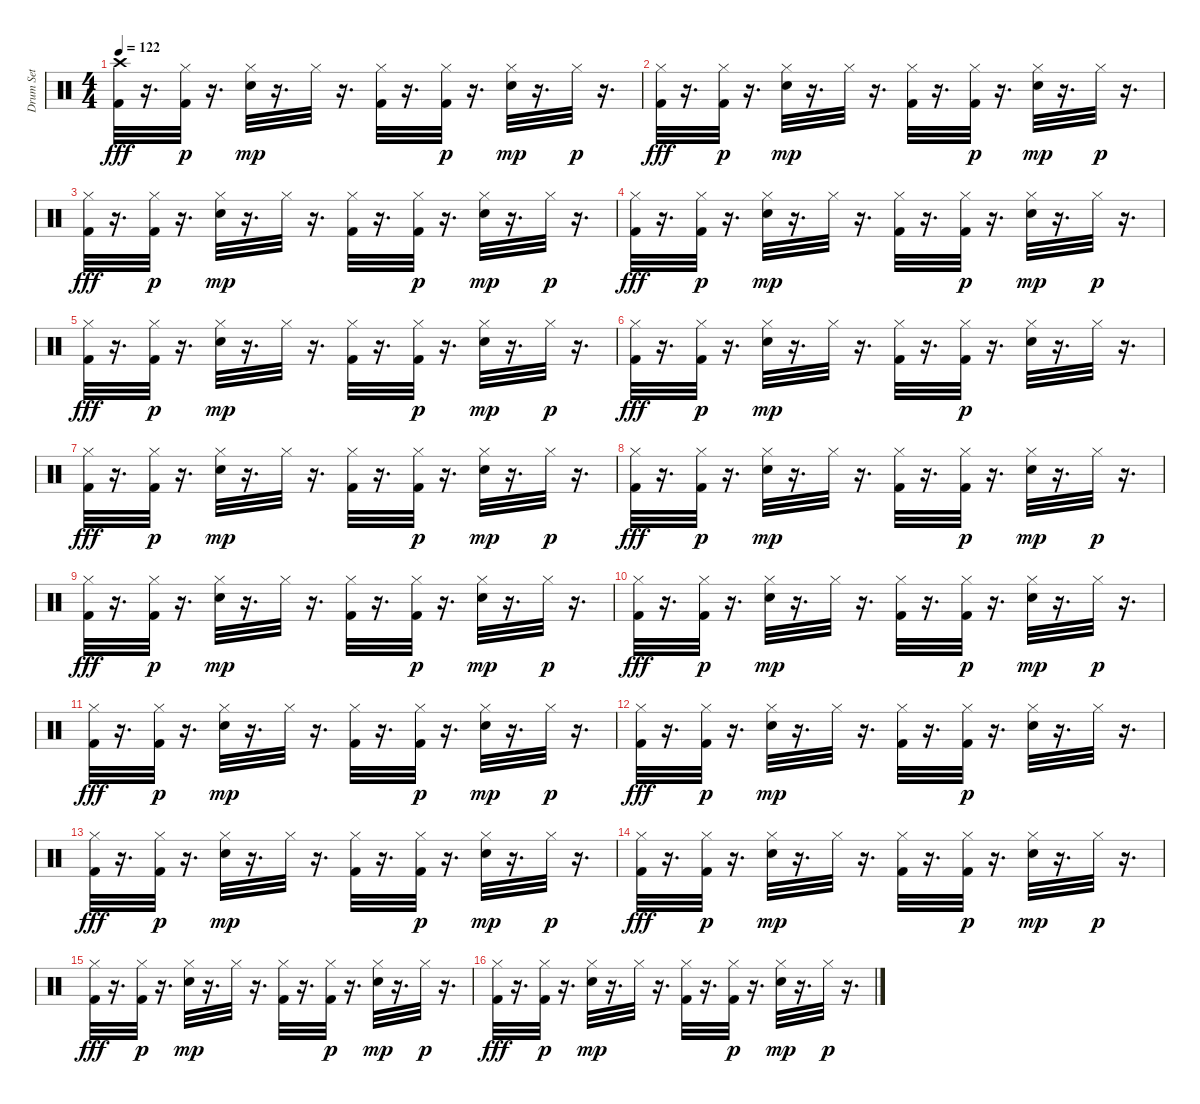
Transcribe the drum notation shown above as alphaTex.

\track ("Drum Set" "Drum Set") {instrument percussion}
\staff {score}
\articulation defaults
\ts (4 4)
\tempo 122
\clef neutral
\ks c
("Crash high (hit)" "Kick (hit) 2").32{dy fff} r.16{d} ("Kick (hit) 2" "Hi-Hat (closed)").32{dy p} r.16{d} ("Electric Snare (hit)" "Hi-Hat (closed)").32{dy mp} r.16{d} "Hi-Hat (closed)".32 r.16{d} ("Kick (hit) 2" "Hi-Hat (closed)").32 r.16{d} ("Kick (hit) 2" "Hi-Hat (closed)").32{dy p} r.16{d} ("Electric Snare (hit)" "Hi-Hat (closed)").32{dy mp} r.16{d} "Hi-Hat (closed)".32{dy p} r.16{d} |
("Hi-Hat (closed)" "Kick (hit) 2").32{dy fff} r.16{d} ("Kick (hit) 2" "Hi-Hat (closed)").32{dy p} r.16{d} ("Electric Snare (hit)" "Hi-Hat (closed)").32{dy mp} r.16{d} "Hi-Hat (closed)".32 r.16{d} ("Kick (hit) 2" "Hi-Hat (closed)").32 r.16{d} ("Kick (hit) 2" "Hi-Hat (closed)").32{dy p} r.16{d} ("Electric Snare (hit)" "Hi-Hat (closed)").32{dy mp} r.16{d} "Hi-Hat (closed)".32{dy p} r.16{d} |
("Hi-Hat (closed)" "Kick (hit) 2").32{dy fff} r.16{d} ("Kick (hit) 2" "Hi-Hat (closed)").32{dy p} r.16{d} ("Electric Snare (hit)" "Hi-Hat (closed)").32{dy mp} r.16{d} "Hi-Hat (closed)".32 r.16{d} ("Kick (hit) 2" "Hi-Hat (closed)").32 r.16{d} ("Kick (hit) 2" "Hi-Hat (closed)").32{dy p} r.16{d} ("Electric Snare (hit)" "Hi-Hat (closed)").32{dy mp} r.16{d} "Hi-Hat (closed)".32{dy p} r.16{d} |
("Hi-Hat (closed)" "Kick (hit) 2").32{dy fff} r.16{d} ("Kick (hit) 2" "Hi-Hat (closed)").32{dy p} r.16{d} ("Electric Snare (hit)" "Hi-Hat (closed)").32{dy mp} r.16{d} "Hi-Hat (closed)".32 r.16{d} ("Kick (hit) 2" "Hi-Hat (closed)").32 r.16{d} ("Kick (hit) 2" "Hi-Hat (closed)").32{dy p} r.16{d} ("Electric Snare (hit)" "Hi-Hat (closed)").32{dy mp} r.16{d} "Hi-Hat (closed)".32{dy p} r.16{d} |
("Hi-Hat (closed)" "Kick (hit) 2").32{dy fff} r.16{d} ("Kick (hit) 2" "Hi-Hat (closed)").32{dy p} r.16{d} ("Electric Snare (hit)" "Hi-Hat (closed)").32{dy mp} r.16{d} "Hi-Hat (closed)".32 r.16{d} ("Kick (hit) 2" "Hi-Hat (closed)").32 r.16{d} ("Kick (hit) 2" "Hi-Hat (closed)").32{dy p} r.16{d} ("Electric Snare (hit)" "Hi-Hat (closed)").32{dy mp} r.16{d} "Hi-Hat (closed)".32{dy p} r.16{d} |
("Hi-Hat (closed)" "Kick (hit) 2").32{dy fff} r.16{d} ("Kick (hit) 2" "Hi-Hat (closed)").32{dy p} r.16{d} ("Electric Snare (hit)" "Hi-Hat (closed)").32{dy mp} r.16{d} "Hi-Hat (closed)".32 r.16{d} ("Kick (hit) 2" "Hi-Hat (closed)").32 r.16{d} ("Kick (hit) 2" "Hi-Hat (closed)").32{dy p} r.16{d} ("Electric Snare (hit)" "Hi-Hat (closed)").32 r.16{d} "Hi-Hat (closed)".32 r.16{d} |
("Hi-Hat (closed)" "Kick (hit) 2").32{dy fff} r.16{d} ("Kick (hit) 2" "Hi-Hat (closed)").32{dy p} r.16{d} ("Electric Snare (hit)" "Hi-Hat (closed)").32{dy mp} r.16{d} "Hi-Hat (closed)".32 r.16{d} ("Kick (hit) 2" "Hi-Hat (closed)").32 r.16{d} ("Kick (hit) 2" "Hi-Hat (closed)").32{dy p} r.16{d} ("Electric Snare (hit)" "Hi-Hat (closed)").32{dy mp} r.16{d} "Hi-Hat (closed)".32{dy p} r.16{d} |
("Hi-Hat (closed)" "Kick (hit) 2").32{dy fff} r.16{d} ("Kick (hit) 2" "Hi-Hat (closed)").32{dy p} r.16{d} ("Electric Snare (hit)" "Hi-Hat (closed)").32{dy mp} r.16{d} "Hi-Hat (closed)".32 r.16{d} ("Kick (hit) 2" "Hi-Hat (closed)").32 r.16{d} ("Kick (hit) 2" "Hi-Hat (closed)").32{dy p} r.16{d} ("Electric Snare (hit)" "Hi-Hat (closed)").32{dy mp} r.16{d} "Hi-Hat (closed)".32{dy p} r.16{d} |
("Hi-Hat (closed)" "Kick (hit) 2").32{dy fff} r.16{d} ("Kick (hit) 2" "Hi-Hat (closed)").32{dy p} r.16{d} ("Electric Snare (hit)" "Hi-Hat (closed)").32{dy mp} r.16{d} "Hi-Hat (closed)".32 r.16{d} ("Kick (hit) 2" "Hi-Hat (closed)").32 r.16{d} ("Kick (hit) 2" "Hi-Hat (closed)").32{dy p} r.16{d} ("Electric Snare (hit)" "Hi-Hat (closed)").32{dy mp} r.16{d} "Hi-Hat (closed)".32{dy p} r.16{d} |
("Hi-Hat (closed)" "Kick (hit) 2").32{dy fff} r.16{d} ("Kick (hit) 2" "Hi-Hat (closed)").32{dy p} r.16{d} ("Electric Snare (hit)" "Hi-Hat (closed)").32{dy mp} r.16{d} "Hi-Hat (closed)".32 r.16{d} ("Kick (hit) 2" "Hi-Hat (closed)").32 r.16{d} ("Kick (hit) 2" "Hi-Hat (closed)").32{dy p} r.16{d} ("Electric Snare (hit)" "Hi-Hat (closed)").32{dy mp} r.16{d} "Hi-Hat (closed)".32{dy p} r.16{d} |
("Hi-Hat (closed)" "Kick (hit) 2").32{dy fff} r.16{d} ("Kick (hit) 2" "Hi-Hat (closed)").32{dy p} r.16{d} ("Electric Snare (hit)" "Hi-Hat (closed)").32{dy mp} r.16{d} "Hi-Hat (closed)".32 r.16{d} ("Kick (hit) 2" "Hi-Hat (closed)").32 r.16{d} ("Kick (hit) 2" "Hi-Hat (closed)").32{dy p} r.16{d} ("Electric Snare (hit)" "Hi-Hat (closed)").32{dy mp} r.16{d} "Hi-Hat (closed)".32{dy p} r.16{d} |
("Hi-Hat (closed)" "Kick (hit) 2").32{dy fff} r.16{d} ("Kick (hit) 2" "Hi-Hat (closed)").32{dy p} r.16{d} ("Electric Snare (hit)" "Hi-Hat (closed)").32{dy mp} r.16{d} "Hi-Hat (closed)".32 r.16{d} ("Kick (hit) 2" "Hi-Hat (closed)").32 r.16{d} ("Kick (hit) 2" "Hi-Hat (closed)").32{dy p} r.16{d} ("Electric Snare (hit)" "Hi-Hat (closed)").32 r.16{d} "Hi-Hat (closed)".32 r.16{d} |
("Hi-Hat (closed)" "Kick (hit) 2").32{dy fff} r.16{d} ("Kick (hit) 2" "Hi-Hat (closed)").32{dy p} r.16{d} ("Electric Snare (hit)" "Hi-Hat (closed)").32{dy mp} r.16{d} "Hi-Hat (closed)".32 r.16{d} ("Kick (hit) 2" "Hi-Hat (closed)").32 r.16{d} ("Kick (hit) 2" "Hi-Hat (closed)").32{dy p} r.16{d} ("Electric Snare (hit)" "Hi-Hat (closed)").32{dy mp} r.16{d} "Hi-Hat (closed)".32{dy p} r.16{d} |
("Hi-Hat (closed)" "Kick (hit) 2").32{dy fff} r.16{d} ("Kick (hit) 2" "Hi-Hat (closed)").32{dy p} r.16{d} ("Electric Snare (hit)" "Hi-Hat (closed)").32{dy mp} r.16{d} "Hi-Hat (closed)".32 r.16{d} ("Kick (hit) 2" "Hi-Hat (closed)").32 r.16{d} ("Kick (hit) 2" "Hi-Hat (closed)").32{dy p} r.16{d} ("Electric Snare (hit)" "Hi-Hat (closed)").32{dy mp} r.16{d} "Hi-Hat (closed)".32{dy p} r.16{d} |
("Hi-Hat (closed)" "Kick (hit) 2").32{dy fff} r.16{d} ("Kick (hit) 2" "Hi-Hat (closed)").32{dy p} r.16{d} ("Electric Snare (hit)" "Hi-Hat (closed)").32{dy mp} r.16{d} "Hi-Hat (closed)".32 r.16{d} ("Kick (hit) 2" "Hi-Hat (closed)").32 r.16{d} ("Kick (hit) 2" "Hi-Hat (closed)").32{dy p} r.16{d} ("Electric Snare (hit)" "Hi-Hat (closed)").32{dy mp} r.16{d} "Hi-Hat (closed)".32{dy p} r.16{d} |
("Hi-Hat (closed)" "Kick (hit) 2").32{dy fff} r.16{d} ("Kick (hit) 2" "Hi-Hat (closed)").32{dy p} r.16{d} ("Electric Snare (hit)" "Hi-Hat (closed)").32{dy mp} r.16{d} "Hi-Hat (closed)".32 r.16{d} ("Kick (hit) 2" "Hi-Hat (closed)").32 r.16{d} ("Kick (hit) 2" "Hi-Hat (closed)").32{dy p} r.16{d} ("Electric Snare (hit)" "Hi-Hat (closed)").32{dy mp} r.16{d} "Hi-Hat (closed)".32{dy p} r.16{d}
